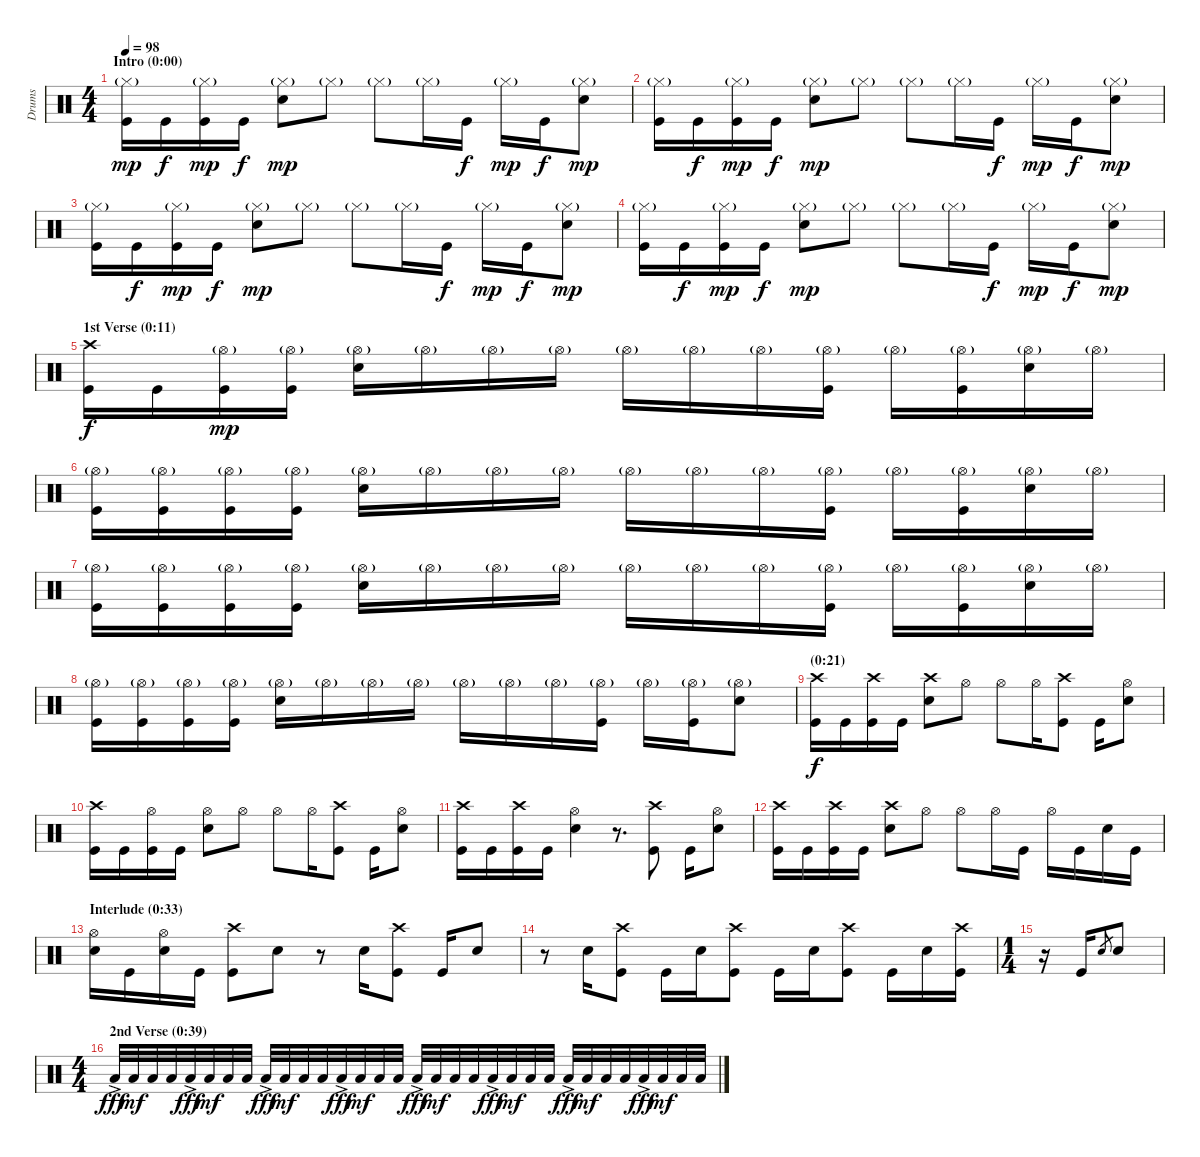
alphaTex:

\track ("Drums" "Drums") {instrument percussion}
\staff {score}
\articulation defaults
\ts (4 4)
\section ("" "Intro (0:00)")
\tempo 98
\tempo 87
\tempo 98
\clef neutral
\ks c
("Hi-Hat (closed)"{g} "Kick (hit)").16{dy mp} "Kick (hit)".16{dy f} ("Hi-Hat (closed)"{g} "Kick (hit)").16{dy mp} "Kick (hit)".16{dy f} ("Hi-Hat (closed)"{g} "Snare (hit) 2").8{dy mp} "Hi-Hat (closed)"{g}.8 "Hi-Hat (closed)"{g}.8 "Hi-Hat (closed)"{g}.16 "Kick (hit)".16{dy f} "Hi-Hat (closed)"{g}.16{dy mp} "Kick (hit)".16{dy f} ("Hi-Hat (closed)"{g} "Snare (hit) 2").8{dy mp} |
("Hi-Hat (closed)"{g} "Kick (hit)").16 "Kick (hit)".16{dy f} ("Hi-Hat (closed)"{g} "Kick (hit)").16{dy mp} "Kick (hit)".16{dy f} ("Hi-Hat (closed)"{g} "Snare (hit) 2").8{dy mp} "Hi-Hat (closed)"{g}.8 "Hi-Hat (closed)"{g}.8 "Hi-Hat (closed)"{g}.16 "Kick (hit)".16{dy f} "Hi-Hat (closed)"{g}.16{dy mp} "Kick (hit)".16{dy f} ("Hi-Hat (closed)"{g} "Snare (hit) 2").8{dy mp} |
("Hi-Hat (closed)"{g} "Kick (hit)").16 "Kick (hit)".16{dy f} ("Hi-Hat (closed)"{g} "Kick (hit)").16{dy mp} "Kick (hit)".16{dy f} ("Hi-Hat (closed)"{g} "Snare (hit) 2").8{dy mp} "Hi-Hat (closed)"{g}.8 "Hi-Hat (closed)"{g}.8 "Hi-Hat (closed)"{g}.16 "Kick (hit)".16{dy f} "Hi-Hat (closed)"{g}.16{dy mp} "Kick (hit)".16{dy f} ("Hi-Hat (closed)"{g} "Snare (hit) 2").8{dy mp} |
("Hi-Hat (closed)"{g} "Kick (hit)").16 "Kick (hit)".16{dy f} ("Hi-Hat (closed)"{g} "Kick (hit)").16{dy mp} "Kick (hit)".16{dy f} ("Hi-Hat (closed)"{g} "Snare (hit) 2").8{dy mp} "Hi-Hat (closed)"{g}.8 "Hi-Hat (closed)"{g}.8 "Hi-Hat (closed)"{g}.16 "Kick (hit)".16{dy f} "Hi-Hat (closed)"{g}.16{dy mp} "Kick (hit)".16{dy f} ("Hi-Hat (closed)"{g} "Snare (hit) 2").8{dy mp} |
\section ("" "1st Verse (0:11)")
("Crash high (hit)" "Kick (hit)").16{dy f} "Kick (hit)".16 ("Hi-Hat (open)"{g} "Kick (hit)").16{dy mp} ("Hi-Hat (open)"{g} "Kick (hit)").16 ("Hi-Hat (open)"{g} "Snare (hit) 2").16 "Hi-Hat (open)"{g}.16 "Hi-Hat (open)"{g}.16 "Hi-Hat (open)"{g}.16 "Hi-Hat (open)"{g}.16 "Hi-Hat (open)"{g}.16 "Hi-Hat (open)"{g}.16 ("Hi-Hat (open)"{g} "Kick (hit)").16 "Hi-Hat (open)"{g}.16 ("Hi-Hat (open)"{g} "Kick (hit)").16 ("Hi-Hat (open)"{g} "Snare (hit) 2").16 "Hi-Hat (open)"{g}.16 |
("Hi-Hat (open)"{g} "Kick (hit)").16 ("Hi-Hat (open)"{g} "Kick (hit)").16 ("Hi-Hat (open)"{g} "Kick (hit)").16 ("Hi-Hat (open)"{g} "Kick (hit)").16 ("Hi-Hat (open)"{g} "Snare (hit) 2").16 "Hi-Hat (open)"{g}.16 "Hi-Hat (open)"{g}.16 "Hi-Hat (open)"{g}.16 "Hi-Hat (open)"{g}.16 "Hi-Hat (open)"{g}.16 "Hi-Hat (open)"{g}.16 ("Hi-Hat (open)"{g} "Kick (hit)").16 "Hi-Hat (open)"{g}.16 ("Hi-Hat (open)"{g} "Kick (hit)").16 ("Hi-Hat (open)"{g} "Snare (hit) 2").16 "Hi-Hat (open)"{g}.16 |
("Hi-Hat (open)"{g} "Kick (hit)").16 ("Hi-Hat (open)"{g} "Kick (hit)").16 ("Hi-Hat (open)"{g} "Kick (hit)").16 ("Hi-Hat (open)"{g} "Kick (hit)").16 ("Hi-Hat (open)"{g} "Snare (hit) 2").16 "Hi-Hat (open)"{g}.16 "Hi-Hat (open)"{g}.16 "Hi-Hat (open)"{g}.16 "Hi-Hat (open)"{g}.16 "Hi-Hat (open)"{g}.16 "Hi-Hat (open)"{g}.16 ("Hi-Hat (open)"{g} "Kick (hit)").16 "Hi-Hat (open)"{g}.16 ("Hi-Hat (open)"{g} "Kick (hit)").16 ("Hi-Hat (open)"{g} "Snare (hit) 2").16 "Hi-Hat (open)"{g}.16 |
("Hi-Hat (open)"{g} "Kick (hit)").16 ("Hi-Hat (open)"{g} "Kick (hit)").16 ("Hi-Hat (open)"{g} "Kick (hit)").16 ("Hi-Hat (open)"{g} "Kick (hit)").16 ("Hi-Hat (open)"{g} "Snare (hit) 2").16 "Hi-Hat (open)"{g}.16 "Hi-Hat (open)"{g}.16 "Hi-Hat (open)"{g}.16 "Hi-Hat (open)"{g}.16 "Hi-Hat (open)"{g}.16 "Hi-Hat (open)"{g}.16 ("Hi-Hat (open)"{g} "Kick (hit)").16 "Hi-Hat (open)"{g}.16 ("Hi-Hat (open)"{g} "Kick (hit)").16 ("Hi-Hat (open)"{g} "Snare (hit) 2").8 |
\section ("" "(0:21)")
("Crash high (hit)" "Kick (hit)").16{dy f} "Kick (hit)".16 ("Crash high (hit)" "Kick (hit)").16 "Kick (hit)".16 ("Crash high (hit)" "Snare (hit) 2").8 "Hi-Hat (open)".8 "Hi-Hat (open)".8 "Hi-Hat (open)".16 ("Crash high (hit)" "Kick (hit)").8 "Kick (hit)".16 ("Hi-Hat (open)" "Snare (hit) 2").8 |
("Crash high (hit)" "Kick (hit)").16 "Kick (hit)".16 ("Hi-Hat (open)" "Kick (hit)").16 "Kick (hit)".16 ("Hi-Hat (open)" "Snare (hit) 2").8 "Hi-Hat (open)".8 "Hi-Hat (open)".8 "Hi-Hat (open)".16 ("Crash high (hit)" "Kick (hit)").8 "Kick (hit)".16 ("Hi-Hat (open)" "Snare (hit) 2").8 |
("Crash high (hit)" "Kick (hit)").16 "Kick (hit)".16 ("Crash high (hit)" "Kick (hit)").16 "Kick (hit)".16 ("Hi-Hat (open)" "Snare (hit) 2").4 r.8{d} ("Crash high (hit)" "Kick (hit)").8 "Kick (hit)".16 ("Hi-Hat (open)" "Snare (hit) 2").8 |
("Crash high (hit)" "Kick (hit)").16 "Kick (hit)".16 ("Crash high (hit)" "Kick (hit)").16 "Kick (hit)".16 ("Crash high (hit)" "Snare (hit) 2").8 "Hi-Hat (open)".8 "Hi-Hat (open)".8 "Hi-Hat (open)".16 "Kick (hit)".16 "Hi-Hat (open)".16 "Kick (hit)".16 "Snare (hit) 2".16 "Kick (hit)".16 |
\section ("" "Interlude (0:33)")
("Hi-Hat (open)" "Snare (hit) 2").16 "Kick (hit)".16 ("Hi-Hat (open)" "Snare (hit) 2").16 "Kick (hit)".16 ("Crash high (hit)" "Kick (hit)").8 "Snare (hit) 2".8 r.8 "Snare (hit) 2".16 ("Crash high (hit)" "Kick (hit)").8 "Kick (hit)".16 "Snare (hit) 2".8 |
r.8 "Snare (hit) 2".16 ("Crash high (hit)" "Kick (hit)").8 "Kick (hit)".16 "Snare (hit) 2".16 ("Crash high (hit)" "Kick (hit)").8 "Kick (hit)".16 "Snare (hit) 2".16 ("Crash high (hit)" "Kick (hit)").8 "Kick (hit)".16 "Snare (hit) 2".16 ("Crash high (hit)" "Kick (hit)").16 |
\ts (1 4)
r.16 "Kick (hit)".16 "Snare (hit) 2".8{gr} "Snare (hit) 2".8 |
\ts (4 4)
\section ("" "2nd Verse (0:39)")
"Low Floor Tom (hit)"{ac}.32{dy fff} "Low Floor Tom (hit)".32{dy mf} "Low Floor Tom (hit)".32 "Low Floor Tom (hit)".32 "Low Floor Tom (hit)"{ac}.32{dy fff} "Low Floor Tom (hit)".32{dy mf} "Low Floor Tom (hit)".32 "Low Floor Tom (hit)".32 "Low Floor Tom (hit)"{ac}.32{dy fff} "Low Floor Tom (hit)".32{dy mf} "Low Floor Tom (hit)".32 "Low Floor Tom (hit)".32 "Low Floor Tom (hit)"{ac}.32{dy fff} "Low Floor Tom (hit)".32{dy mf} "Low Floor Tom (hit)".32 "Low Floor Tom (hit)".32 "Low Floor Tom (hit)"{ac}.32{dy fff} "Low Floor Tom (hit)".32{dy mf} "Low Floor Tom (hit)".32 "Low Floor Tom (hit)".32 "Low Floor Tom (hit)"{ac}.32{dy fff} "Low Floor Tom (hit)".32{dy mf} "Low Floor Tom (hit)".32 "Low Floor Tom (hit)".32 "Low Floor Tom (hit)"{ac}.32{dy fff} "Low Floor Tom (hit)".32{dy mf} "Low Floor Tom (hit)".32 "Low Floor Tom (hit)".32 "Low Floor Tom (hit)"{ac}.32{dy fff} "Low Floor Tom (hit)".32{dy mf} "Low Floor Tom (hit)".32 "Low Floor Tom (hit)".32
